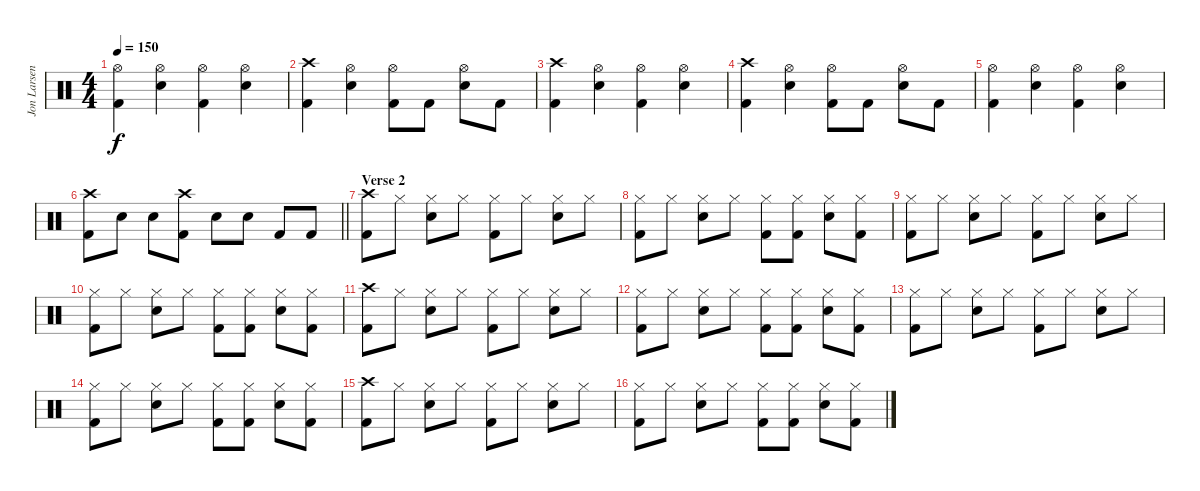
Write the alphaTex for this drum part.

\track ("Jon Larsen" "Jon Larsen") {instrument percussion}
\staff {score}
\articulation defaults
\ts (4 4)
\tempo 150
\clef neutral
\ks c
("Hi-Hat (open)" "Kick (hit) 2").4{dy f} ("Hi-Hat (open)" "Electric Snare (hit)").4 ("Hi-Hat (open)" "Kick (hit) 2").4 ("Hi-Hat (open)" "Electric Snare (hit)").4 |
("Crash high (hit)" "Kick (hit) 2").4 ("Hi-Hat (open)" "Electric Snare (hit)").4 ("Hi-Hat (open)" "Kick (hit) 2").8 "Kick (hit) 2".8 ("Hi-Hat (open)" "Electric Snare (hit)").8 "Kick (hit) 2".8 |
("Crash high (hit)" "Kick (hit) 2").4 ("Hi-Hat (open)" "Electric Snare (hit)").4 ("Hi-Hat (open)" "Kick (hit) 2").4 ("Hi-Hat (open)" "Electric Snare (hit)").4 |
("Crash high (hit)" "Kick (hit) 2").4 ("Hi-Hat (open)" "Electric Snare (hit)").4 ("Hi-Hat (open)" "Kick (hit) 2").8 "Kick (hit) 2".8 ("Hi-Hat (open)" "Electric Snare (hit)").8 "Kick (hit) 2".8 |
("Hi-Hat (open)" "Kick (hit) 2").4 ("Hi-Hat (open)" "Electric Snare (hit)").4 ("Hi-Hat (open)" "Kick (hit) 2").4 ("Hi-Hat (open)" "Electric Snare (hit)").4 |
\barLineRight lightlight
("Crash high (hit)" "Kick (hit) 2").8 "Electric Snare (hit)".8 "Electric Snare (hit)".8 ("Crash high (hit)" "Kick (hit) 2").8 "Electric Snare (hit)".8 "Electric Snare (hit)".8 "Kick (hit) 2".8 "Kick (hit) 2".8 |
\section ("" "Verse 2")
("Crash high (hit)" "Kick (hit) 2").8 "Hi-Hat (closed)".8 ("Hi-Hat (closed)" "Electric Snare (hit)").8 "Hi-Hat (closed)".8 ("Hi-Hat (closed)" "Kick (hit) 2").8 "Hi-Hat (closed)".8 ("Hi-Hat (closed)" "Electric Snare (hit)").8 "Hi-Hat (closed)".8 |
("Hi-Hat (closed)" "Kick (hit) 2").8 "Hi-Hat (closed)".8 ("Hi-Hat (closed)" "Electric Snare (hit)").8 "Hi-Hat (closed)".8 ("Hi-Hat (closed)" "Kick (hit) 2").8 ("Hi-Hat (closed)" "Kick (hit) 2").8 ("Hi-Hat (closed)" "Electric Snare (hit)").8 ("Hi-Hat (closed)" "Kick (hit) 2").8 |
("Hi-Hat (closed)" "Kick (hit) 2").8 "Hi-Hat (closed)".8 ("Hi-Hat (closed)" "Electric Snare (hit)").8 "Hi-Hat (closed)".8 ("Hi-Hat (closed)" "Kick (hit) 2").8 "Hi-Hat (closed)".8 ("Hi-Hat (closed)" "Electric Snare (hit)").8 "Hi-Hat (closed)".8 |
("Hi-Hat (closed)" "Kick (hit) 2").8 "Hi-Hat (closed)".8 ("Hi-Hat (closed)" "Electric Snare (hit)").8 "Hi-Hat (closed)".8 ("Hi-Hat (closed)" "Kick (hit) 2").8 ("Hi-Hat (closed)" "Kick (hit) 2").8 ("Hi-Hat (closed)" "Electric Snare (hit)").8 ("Hi-Hat (closed)" "Kick (hit) 2").8 |
("Crash high (hit)" "Kick (hit) 2").8 "Hi-Hat (closed)".8 ("Hi-Hat (closed)" "Electric Snare (hit)").8 "Hi-Hat (closed)".8 ("Hi-Hat (closed)" "Kick (hit) 2").8 "Hi-Hat (closed)".8 ("Hi-Hat (closed)" "Electric Snare (hit)").8 "Hi-Hat (closed)".8 |
("Hi-Hat (closed)" "Kick (hit) 2").8 "Hi-Hat (closed)".8 ("Hi-Hat (closed)" "Electric Snare (hit)").8 "Hi-Hat (closed)".8 ("Hi-Hat (closed)" "Kick (hit) 2").8 ("Hi-Hat (closed)" "Kick (hit) 2").8 ("Hi-Hat (closed)" "Electric Snare (hit)").8 ("Hi-Hat (closed)" "Kick (hit) 2").8 |
("Hi-Hat (closed)" "Kick (hit) 2").8 "Hi-Hat (closed)".8 ("Hi-Hat (closed)" "Electric Snare (hit)").8 "Hi-Hat (closed)".8 ("Hi-Hat (closed)" "Kick (hit) 2").8 "Hi-Hat (closed)".8 ("Hi-Hat (closed)" "Electric Snare (hit)").8 "Hi-Hat (closed)".8 |
("Hi-Hat (closed)" "Kick (hit) 2").8 "Hi-Hat (closed)".8 ("Hi-Hat (closed)" "Electric Snare (hit)").8 "Hi-Hat (closed)".8 ("Hi-Hat (closed)" "Kick (hit) 2").8 ("Hi-Hat (closed)" "Kick (hit) 2").8 ("Hi-Hat (closed)" "Electric Snare (hit)").8 ("Hi-Hat (closed)" "Kick (hit) 2").8 |
("Crash high (hit)" "Kick (hit) 2").8 "Hi-Hat (closed)".8 ("Hi-Hat (closed)" "Electric Snare (hit)").8 "Hi-Hat (closed)".8 ("Hi-Hat (closed)" "Kick (hit) 2").8 "Hi-Hat (closed)".8 ("Hi-Hat (closed)" "Electric Snare (hit)").8 "Hi-Hat (closed)".8 |
("Hi-Hat (closed)" "Kick (hit) 2").8 "Hi-Hat (closed)".8 ("Hi-Hat (closed)" "Electric Snare (hit)").8 "Hi-Hat (closed)".8 ("Hi-Hat (closed)" "Kick (hit) 2").8 ("Hi-Hat (closed)" "Kick (hit) 2").8 ("Hi-Hat (closed)" "Electric Snare (hit)").8 ("Hi-Hat (closed)" "Kick (hit) 2").8
